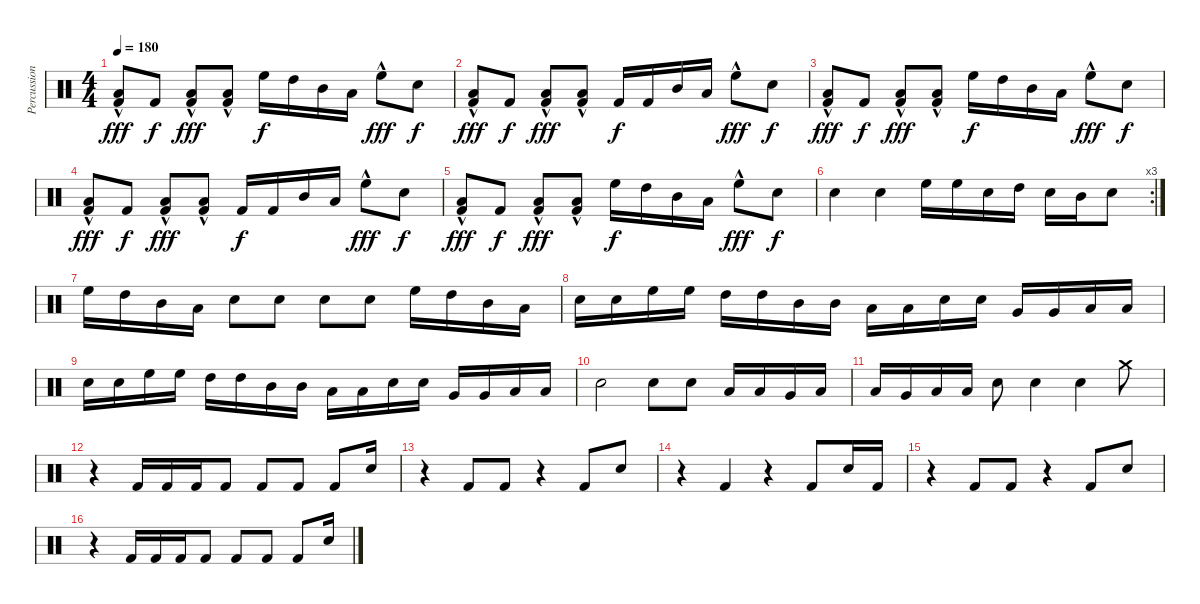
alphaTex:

\track ("Percussion" "Percussion") {instrument percussion}
\staff {score}
\articulation defaults
\ts (4 4)
\tempo 180
\clef neutral
\ks c
("Low Tom (hit)"{hac} "Kick (hit) 2").8{dy fff} "Kick (hit) 2".8{dy f} ("Low Tom (hit)"{hac} "Kick (hit) 2").8{dy fff} ("Low Tom (hit)"{hac} "Kick (hit) 2").8 "High Floor Tom (hit)".16{dy f} "High Tom (hit)".16 "Mid Tom (hit)".16 "Low Tom (hit)".16 "High Floor Tom (hit)"{hac}.8{dy fff} "Snare (hit) 2".8{dy f} |
("Low Tom (hit)"{hac} "Kick (hit) 2").8{dy fff} "Kick (hit) 2".8{dy f} ("Low Tom (hit)"{hac} "Kick (hit) 2").8{dy fff} ("Low Tom (hit)"{hac} "Kick (hit) 2").8 "Kick (hit) 2".16{dy f} "Kick (hit) 2".16 "Mid Tom (hit)".16 "Low Tom (hit)".16 "High Floor Tom (hit)"{hac}.8{dy fff} "Snare (hit) 2".8{dy f} |
("Low Tom (hit)"{hac} "Kick (hit) 2").8{dy fff} "Kick (hit) 2".8{dy f} ("Low Tom (hit)"{hac} "Kick (hit) 2").8{dy fff} ("Low Tom (hit)"{hac} "Kick (hit) 2").8 "High Floor Tom (hit)".16{dy f} "High Tom (hit)".16 "Mid Tom (hit)".16 "Low Tom (hit)".16 "High Floor Tom (hit)"{hac}.8{dy fff} "Snare (hit) 2".8{dy f} |
("Low Tom (hit)"{hac} "Kick (hit) 2").8{dy fff} "Kick (hit) 2".8{dy f} ("Low Tom (hit)"{hac} "Kick (hit) 2").8{dy fff} ("Low Tom (hit)"{hac} "Kick (hit) 2").8 "Kick (hit) 2".16{dy f} "Kick (hit) 2".16 "Mid Tom (hit)".16 "Low Tom (hit)".16 "High Floor Tom (hit)"{hac}.8{dy fff} "Snare (hit) 2".8{dy f} |
("Low Tom (hit)"{hac} "Kick (hit) 2").8{dy fff} "Kick (hit) 2".8{dy f} ("Low Tom (hit)"{hac} "Kick (hit) 2").8{dy fff} ("Low Tom (hit)"{hac} "Kick (hit) 2").8 "High Floor Tom (hit)".16{dy f} "High Tom (hit)".16 "Mid Tom (hit)".16 "Low Tom (hit)".16 "High Floor Tom (hit)"{hac}.8{dy fff} "Snare (hit) 2".8{dy f} |
\rc 3 "Snare (hit) 2".4 "Snare (hit) 2".4 "High Floor Tom (hit)".16 "High Floor Tom (hit)".16 "Snare (hit) 2".16 "High Tom (hit)".16 "Snare (hit) 2".16 "Mid Tom (hit)".16 "Snare (hit) 2".8
|
"High Floor Tom (hit)".16 "High Tom (hit)".16 "Mid Tom (hit)".16 "Low Tom (hit)".16 "Snare (hit) 2".8 "Snare (hit) 2".8 "Snare (hit) 2".8 "Snare (hit) 2".8 "High Floor Tom (hit)".16 "High Tom (hit)".16 "Mid Tom (hit)".16 "Low Tom (hit)".16 |
"Snare (hit) 2".16 "Snare (hit) 2".16 "High Floor Tom (hit)".16 "High Floor Tom (hit)".16 "High Tom (hit)".16 "High Tom (hit)".16 "Mid Tom (hit)".16 "Mid Tom (hit)".16 "Low Tom (hit)".16 "Low Tom (hit)".16 "Snare (hit) 2".16 "Snare (hit) 2".16 "Very Low Tom (hit)".16 "Very Low Tom (hit)".16 "Low Floor Tom (hit)".16 "Low Floor Tom (hit)".16 |
"Snare (hit) 2".16 "Snare (hit) 2".16 "High Floor Tom (hit)".16 "High Floor Tom (hit)".16 "High Tom (hit)".16 "High Tom (hit)".16 "Mid Tom (hit)".16 "Mid Tom (hit)".16 "Low Tom (hit)".16 "Low Tom (hit)".16 "Snare (hit) 2".16 "Snare (hit) 2".16 "Very Low Tom (hit)".16 "Very Low Tom (hit)".16 "Low Floor Tom (hit)".16 "Low Floor Tom (hit)".16 |
"Snare (hit) 2".2 "Snare (hit) 2".8 "Snare (hit) 2".8 "Low Tom (hit)".16 "Low Tom (hit)".16 "Very Low Tom (hit)".16 "Low Floor Tom (hit)".16 |
"Low Floor Tom (hit)".16 "Very Low Tom (hit)".16 "Low Tom (hit)".16 "Low Tom (hit)".16 "Snare (hit) 2".8 "Snare (hit) 2".4 "Snare (hit) 2".4 "Crash medium (hit)".8 |
r.4 "Kick (hit) 2".16 "Kick (hit) 2".16 "Kick (hit) 2".16 "Kick (hit) 2".8 "Kick (hit) 2".8 "Kick (hit) 2".8 "Kick (hit) 2".8 "Snare (hit) 2".16 |
r.4 "Kick (hit) 2".8 "Kick (hit) 2".8 r.4 "Kick (hit) 2".8 "Snare (hit) 2".8 |
r.4 "Kick (hit) 2".4 r.4 "Kick (hit) 2".8 "Snare (hit) 2".16 "Kick (hit) 2".16 |
r.4 "Kick (hit) 2".8 "Kick (hit) 2".8 r.4 "Kick (hit) 2".8 "Snare (hit) 2".8 |
r.4 "Kick (hit) 2".16 "Kick (hit) 2".16 "Kick (hit) 2".16 "Kick (hit) 2".8 "Kick (hit) 2".8 "Kick (hit) 2".8 "Kick (hit) 2".8 "Snare (hit) 2".16
